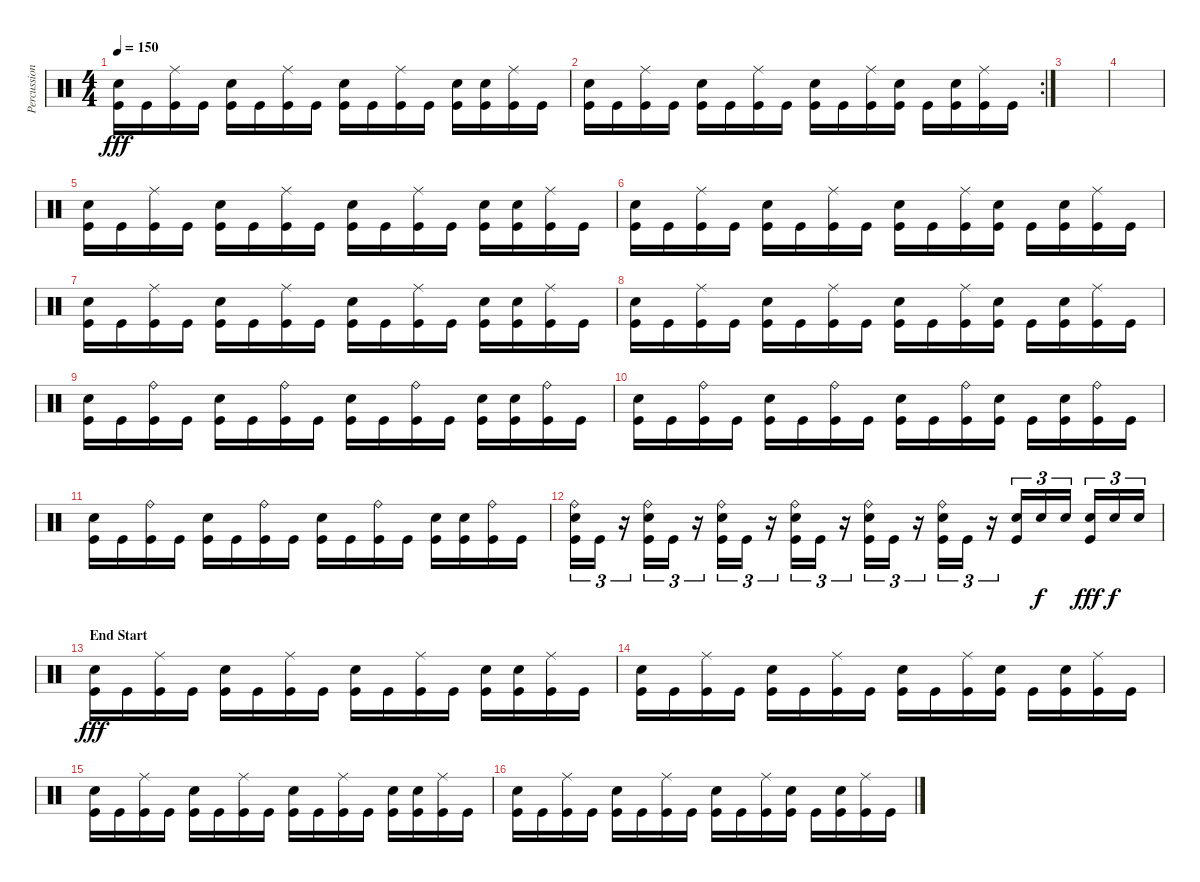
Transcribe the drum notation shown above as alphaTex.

\track ("Percussions" "Percussion") {instrument percussion}
\staff {score}
\articulation defaults
\ts (4 4)
\tempo 150
\clef neutral
\ks c
("Snare (hit) 2" "Kick (hit)").16{dy fff} "Kick (hit)".16 ("Ride (middle)" "Kick (hit)").16 "Kick (hit)".16 ("Snare (hit) 2" "Kick (hit)").16 "Kick (hit)".16 ("Ride (middle)" "Kick (hit)").16 "Kick (hit)".16 ("Snare (hit) 2" "Kick (hit)").16 "Kick (hit)".16 ("Ride (middle)" "Kick (hit)").16 "Kick (hit)".16 ("Snare (hit) 2" "Kick (hit)").16 ("Snare (hit) 2" "Kick (hit)").16 ("Ride (middle)" "Kick (hit)").16 "Kick (hit)".16 |
\rc 2
("Snare (hit) 2" "Kick (hit)").16 "Kick (hit)".16 ("Ride (middle)" "Kick (hit)").16 "Kick (hit)".16 ("Snare (hit) 2" "Kick (hit)").16 "Kick (hit)".16 ("Ride (middle)" "Kick (hit)").16 "Kick (hit)".16 ("Snare (hit) 2" "Kick (hit)").16 "Kick (hit)".16 ("Ride (middle)" "Kick (hit)").16 ("Snare (hit) 2" "Kick (hit)").16 "Kick (hit)".16 ("Snare (hit) 2" "Kick (hit)").16 ("Ride (middle)" "Kick (hit)").16 "Kick (hit)".16 |
|
|
("Snare (hit) 2" "Kick (hit)").16 "Kick (hit)".16 ("Ride (middle)" "Kick (hit)").16 "Kick (hit)".16 ("Snare (hit) 2" "Kick (hit)").16 "Kick (hit)".16 ("Ride (middle)" "Kick (hit)").16 "Kick (hit)".16 ("Snare (hit) 2" "Kick (hit)").16 "Kick (hit)".16 ("Ride (middle)" "Kick (hit)").16 "Kick (hit)".16 ("Snare (hit) 2" "Kick (hit)").16 ("Snare (hit) 2" "Kick (hit)").16 ("Ride (middle)" "Kick (hit)").16 "Kick (hit)".16 |
("Snare (hit) 2" "Kick (hit)").16 "Kick (hit)".16 ("Ride (middle)" "Kick (hit)").16 "Kick (hit)".16 ("Snare (hit) 2" "Kick (hit)").16 "Kick (hit)".16 ("Ride (middle)" "Kick (hit)").16 "Kick (hit)".16 ("Snare (hit) 2" "Kick (hit)").16 "Kick (hit)".16 ("Ride (middle)" "Kick (hit)").16 ("Snare (hit) 2" "Kick (hit)").16 "Kick (hit)".16 ("Snare (hit) 2" "Kick (hit)").16 ("Ride (middle)" "Kick (hit)").16 "Kick (hit)".16 |
("Snare (hit) 2" "Kick (hit)").16 "Kick (hit)".16 ("Ride (middle)" "Kick (hit)").16 "Kick (hit)".16 ("Snare (hit) 2" "Kick (hit)").16 "Kick (hit)".16 ("Ride (middle)" "Kick (hit)").16 "Kick (hit)".16 ("Snare (hit) 2" "Kick (hit)").16 "Kick (hit)".16 ("Ride (middle)" "Kick (hit)").16 "Kick (hit)".16 ("Snare (hit) 2" "Kick (hit)").16 ("Snare (hit) 2" "Kick (hit)").16 ("Ride (middle)" "Kick (hit)").16 "Kick (hit)".16 |
("Snare (hit) 2" "Kick (hit)").16 "Kick (hit)".16 ("Ride (middle)" "Kick (hit)").16 "Kick (hit)".16 ("Snare (hit) 2" "Kick (hit)").16 "Kick (hit)".16 ("Ride (middle)" "Kick (hit)").16 "Kick (hit)".16 ("Snare (hit) 2" "Kick (hit)").16 "Kick (hit)".16 ("Ride (middle)" "Kick (hit)").16 ("Snare (hit) 2" "Kick (hit)").16 "Kick (hit)".16 ("Snare (hit) 2" "Kick (hit)").16 ("Ride (middle)" "Kick (hit)").16 "Kick (hit)".16 |
("Snare (hit) 2" "Kick (hit)").16 "Kick (hit)".16 ("Ride (bell)" "Kick (hit)").16 "Kick (hit)".16 ("Snare (hit) 2" "Kick (hit)").16 "Kick (hit)".16 ("Ride (bell)" "Kick (hit)").16 "Kick (hit)".16 ("Snare (hit) 2" "Kick (hit)").16 "Kick (hit)".16 ("Ride (bell)" "Kick (hit)").16 "Kick (hit)".16 ("Snare (hit) 2" "Kick (hit)").16 ("Snare (hit) 2" "Kick (hit)").16 ("Ride (bell)" "Kick (hit)").16 "Kick (hit)".16 |
("Snare (hit) 2" "Kick (hit)").16 "Kick (hit)".16 ("Ride (bell)" "Kick (hit)").16 "Kick (hit)".16 ("Snare (hit) 2" "Kick (hit)").16 "Kick (hit)".16 ("Ride (bell)" "Kick (hit)").16 "Kick (hit)".16 ("Snare (hit) 2" "Kick (hit)").16 "Kick (hit)".16 ("Ride (bell)" "Kick (hit)").16 ("Snare (hit) 2" "Kick (hit)").16 "Kick (hit)".16 ("Snare (hit) 2" "Kick (hit)").16 ("Ride (bell)" "Kick (hit)").16 "Kick (hit)".16 |
("Snare (hit) 2" "Kick (hit)").16 "Kick (hit)".16 ("Ride (bell)" "Kick (hit)").16 "Kick (hit)".16 ("Snare (hit) 2" "Kick (hit)").16 "Kick (hit)".16 ("Ride (bell)" "Kick (hit)").16 "Kick (hit)".16 ("Snare (hit) 2" "Kick (hit)").16 "Kick (hit)".16 ("Ride (bell)" "Kick (hit)").16 "Kick (hit)".16 ("Snare (hit) 2" "Kick (hit)").16 ("Snare (hit) 2" "Kick (hit)").16 ("Ride (bell)" "Kick (hit)").16 "Kick (hit)".16 |
("Ride (bell)" "Snare (hit) 2" "Kick (hit)").16{tu (3 2)} "Kick (hit)".16{tu (3 2)} r.16{tu (3 2)} ("Ride (bell)" "Snare (hit) 2" "Kick (hit)").16{tu (3 2)} "Kick (hit)".16{tu (3 2)} r.16{tu (3 2)} ("Ride (bell)" "Snare (hit) 2" "Kick (hit)").16{tu (3 2)} "Kick (hit)".16{tu (3 2)} r.16{tu (3 2)} ("Ride (bell)" "Snare (hit) 2" "Kick (hit)").16{tu (3 2)} "Kick (hit)".16{tu (3 2)} r.16{tu (3 2)} ("Ride (bell)" "Snare (hit) 2" "Kick (hit)").16{tu (3 2)} "Kick (hit)".16{tu (3 2)} r.16{tu (3 2)} ("Ride (bell)" "Snare (hit) 2" "Kick (hit)").16{tu (3 2)} "Kick (hit)".16{tu (3 2)} r.16{tu (3 2)} ("Snare (hit) 2" "Kick (hit)").16{tu (3 2)} "Snare (hit) 2".16{tu (3 2) dy f} "Snare (hit) 2".16{tu (3 2)} ("Snare (hit) 2" "Kick (hit)").16{tu (3 2) dy fff} "Snare (hit) 2".16{tu (3 2) dy f} "Snare (hit) 2".16{tu (3 2)} |
\section ("" "End Start")
("Snare (hit) 2" "Kick (hit)").16{dy fff} "Kick (hit)".16 ("Ride (middle)" "Kick (hit)").16 "Kick (hit)".16 ("Snare (hit) 2" "Kick (hit)").16 "Kick (hit)".16 ("Ride (middle)" "Kick (hit)").16 "Kick (hit)".16 ("Snare (hit) 2" "Kick (hit)").16 "Kick (hit)".16 ("Ride (middle)" "Kick (hit)").16 "Kick (hit)".16 ("Snare (hit) 2" "Kick (hit)").16 ("Snare (hit) 2" "Kick (hit)").16 ("Ride (middle)" "Kick (hit)").16 "Kick (hit)".16 |
("Snare (hit) 2" "Kick (hit)").16 "Kick (hit)".16 ("Ride (middle)" "Kick (hit)").16 "Kick (hit)".16 ("Snare (hit) 2" "Kick (hit)").16 "Kick (hit)".16 ("Ride (middle)" "Kick (hit)").16 "Kick (hit)".16 ("Snare (hit) 2" "Kick (hit)").16 "Kick (hit)".16 ("Ride (middle)" "Kick (hit)").16 ("Snare (hit) 2" "Kick (hit)").16 "Kick (hit)".16 ("Snare (hit) 2" "Kick (hit)").16 ("Ride (middle)" "Kick (hit)").16 "Kick (hit)".16 |
("Snare (hit) 2" "Kick (hit)").16 "Kick (hit)".16 ("Ride (middle)" "Kick (hit)").16 "Kick (hit)".16 ("Snare (hit) 2" "Kick (hit)").16 "Kick (hit)".16 ("Ride (middle)" "Kick (hit)").16 "Kick (hit)".16 ("Snare (hit) 2" "Kick (hit)").16 "Kick (hit)".16 ("Ride (middle)" "Kick (hit)").16 "Kick (hit)".16 ("Snare (hit) 2" "Kick (hit)").16 ("Snare (hit) 2" "Kick (hit)").16 ("Ride (middle)" "Kick (hit)").16 "Kick (hit)".16 |
("Snare (hit) 2" "Kick (hit)").16 "Kick (hit)".16 ("Ride (middle)" "Kick (hit)").16 "Kick (hit)".16 ("Snare (hit) 2" "Kick (hit)").16 "Kick (hit)".16 ("Ride (middle)" "Kick (hit)").16 "Kick (hit)".16 ("Snare (hit) 2" "Kick (hit)").16 "Kick (hit)".16 ("Ride (middle)" "Kick (hit)").16 ("Snare (hit) 2" "Kick (hit)").16 "Kick (hit)".16 ("Snare (hit) 2" "Kick (hit)").16 ("Ride (middle)" "Kick (hit)").16 "Kick (hit)".16
